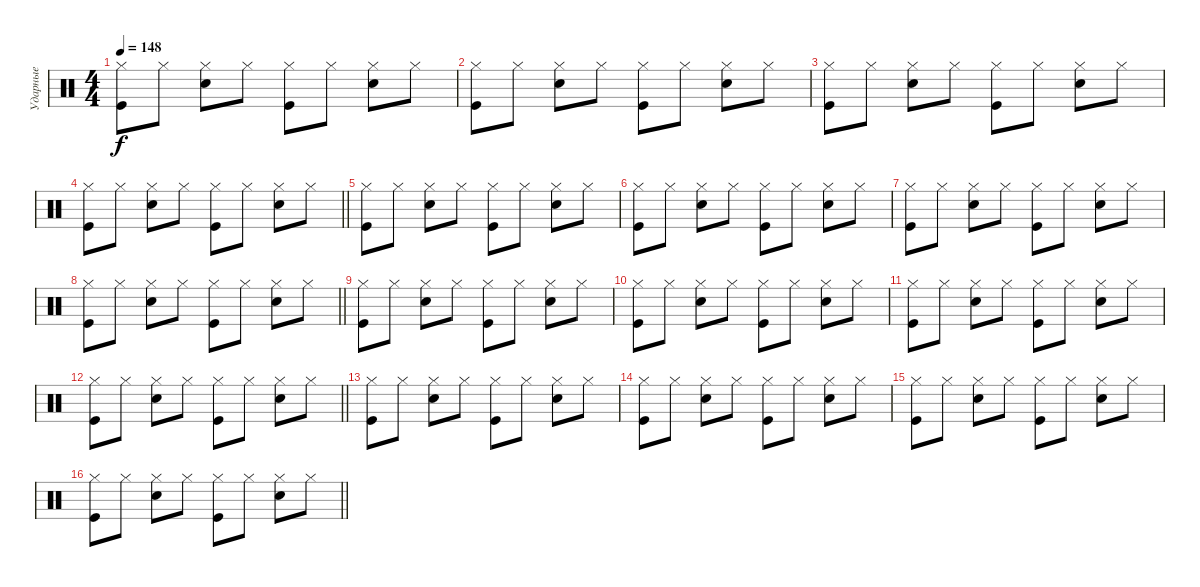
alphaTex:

\track ("Ударные" "Ударные") {instrument percussion}
\staff {score}
\articulation defaults
\ts (4 4)
\tempo 148
\clef neutral
\ks c
("Hi-Hat (closed)" "Kick (hit)").8{dy f} "Hi-Hat (closed)".8 ("Hi-Hat (closed)" "Snare (hit) 2").8 "Hi-Hat (closed)".8 ("Hi-Hat (closed)" "Kick (hit)").8 "Hi-Hat (closed)".8 ("Hi-Hat (closed)" "Snare (hit) 2").8 "Hi-Hat (closed)".8 |
("Hi-Hat (closed)" "Kick (hit)").8 "Hi-Hat (closed)".8 ("Hi-Hat (closed)" "Snare (hit) 2").8 "Hi-Hat (closed)".8 ("Hi-Hat (closed)" "Kick (hit)").8 "Hi-Hat (closed)".8 ("Hi-Hat (closed)" "Snare (hit) 2").8 "Hi-Hat (closed)".8 |
("Hi-Hat (closed)" "Kick (hit)").8 "Hi-Hat (closed)".8 ("Hi-Hat (closed)" "Snare (hit) 2").8 "Hi-Hat (closed)".8 ("Hi-Hat (closed)" "Kick (hit)").8 "Hi-Hat (closed)".8 ("Hi-Hat (closed)" "Snare (hit) 2").8 "Hi-Hat (closed)".8 |
\barLineRight lightlight
("Hi-Hat (closed)" "Kick (hit)").8 "Hi-Hat (closed)".8 ("Hi-Hat (closed)" "Snare (hit) 2").8 "Hi-Hat (closed)".8 ("Hi-Hat (closed)" "Kick (hit)").8 "Hi-Hat (closed)".8 ("Hi-Hat (closed)" "Snare (hit) 2").8 "Hi-Hat (closed)".8 |
("Hi-Hat (closed)" "Kick (hit)").8 "Hi-Hat (closed)".8 ("Hi-Hat (closed)" "Snare (hit) 2").8 "Hi-Hat (closed)".8 ("Hi-Hat (closed)" "Kick (hit)").8 "Hi-Hat (closed)".8 ("Hi-Hat (closed)" "Snare (hit) 2").8 "Hi-Hat (closed)".8 |
("Hi-Hat (closed)" "Kick (hit)").8 "Hi-Hat (closed)".8 ("Hi-Hat (closed)" "Snare (hit) 2").8 "Hi-Hat (closed)".8 ("Hi-Hat (closed)" "Kick (hit)").8 "Hi-Hat (closed)".8 ("Hi-Hat (closed)" "Snare (hit) 2").8 "Hi-Hat (closed)".8 |
("Hi-Hat (closed)" "Kick (hit)").8 "Hi-Hat (closed)".8 ("Hi-Hat (closed)" "Snare (hit) 2").8 "Hi-Hat (closed)".8 ("Hi-Hat (closed)" "Kick (hit)").8 "Hi-Hat (closed)".8 ("Hi-Hat (closed)" "Snare (hit) 2").8 "Hi-Hat (closed)".8 |
\barLineRight lightlight
("Hi-Hat (closed)" "Kick (hit)").8 "Hi-Hat (closed)".8 ("Hi-Hat (closed)" "Snare (hit) 2").8 "Hi-Hat (closed)".8 ("Hi-Hat (closed)" "Kick (hit)").8 "Hi-Hat (closed)".8 ("Hi-Hat (closed)" "Snare (hit) 2").8 "Hi-Hat (closed)".8 |
("Hi-Hat (closed)" "Kick (hit)").8 "Hi-Hat (closed)".8 ("Hi-Hat (closed)" "Snare (hit) 2").8 "Hi-Hat (closed)".8 ("Hi-Hat (closed)" "Kick (hit)").8 "Hi-Hat (closed)".8 ("Hi-Hat (closed)" "Snare (hit) 2").8 "Hi-Hat (closed)".8 |
("Hi-Hat (closed)" "Kick (hit)").8 "Hi-Hat (closed)".8 ("Hi-Hat (closed)" "Snare (hit) 2").8 "Hi-Hat (closed)".8 ("Hi-Hat (closed)" "Kick (hit)").8 "Hi-Hat (closed)".8 ("Hi-Hat (closed)" "Snare (hit) 2").8 "Hi-Hat (closed)".8 |
("Hi-Hat (closed)" "Kick (hit)").8 "Hi-Hat (closed)".8 ("Hi-Hat (closed)" "Snare (hit) 2").8 "Hi-Hat (closed)".8 ("Hi-Hat (closed)" "Kick (hit)").8 "Hi-Hat (closed)".8 ("Hi-Hat (closed)" "Snare (hit) 2").8 "Hi-Hat (closed)".8 |
\barLineRight lightlight
("Hi-Hat (closed)" "Kick (hit)").8 "Hi-Hat (closed)".8 ("Hi-Hat (closed)" "Snare (hit) 2").8 "Hi-Hat (closed)".8 ("Hi-Hat (closed)" "Kick (hit)").8 "Hi-Hat (closed)".8 ("Hi-Hat (closed)" "Snare (hit) 2").8 "Hi-Hat (closed)".8 |
("Hi-Hat (closed)" "Kick (hit)").8 "Hi-Hat (closed)".8 ("Hi-Hat (closed)" "Snare (hit) 2").8 "Hi-Hat (closed)".8 ("Hi-Hat (closed)" "Kick (hit)").8 "Hi-Hat (closed)".8 ("Hi-Hat (closed)" "Snare (hit) 2").8 "Hi-Hat (closed)".8 |
("Hi-Hat (closed)" "Kick (hit)").8 "Hi-Hat (closed)".8 ("Hi-Hat (closed)" "Snare (hit) 2").8 "Hi-Hat (closed)".8 ("Hi-Hat (closed)" "Kick (hit)").8 "Hi-Hat (closed)".8 ("Hi-Hat (closed)" "Snare (hit) 2").8 "Hi-Hat (closed)".8 |
("Hi-Hat (closed)" "Kick (hit)").8 "Hi-Hat (closed)".8 ("Hi-Hat (closed)" "Snare (hit) 2").8 "Hi-Hat (closed)".8 ("Hi-Hat (closed)" "Kick (hit)").8 "Hi-Hat (closed)".8 ("Hi-Hat (closed)" "Snare (hit) 2").8 "Hi-Hat (closed)".8 |
\barLineRight lightlight
("Hi-Hat (closed)" "Kick (hit)").8 "Hi-Hat (closed)".8 ("Hi-Hat (closed)" "Snare (hit) 2").8 "Hi-Hat (closed)".8 ("Hi-Hat (closed)" "Kick (hit)").8 "Hi-Hat (closed)".8 ("Hi-Hat (closed)" "Snare (hit) 2").8 "Hi-Hat (closed)".8
